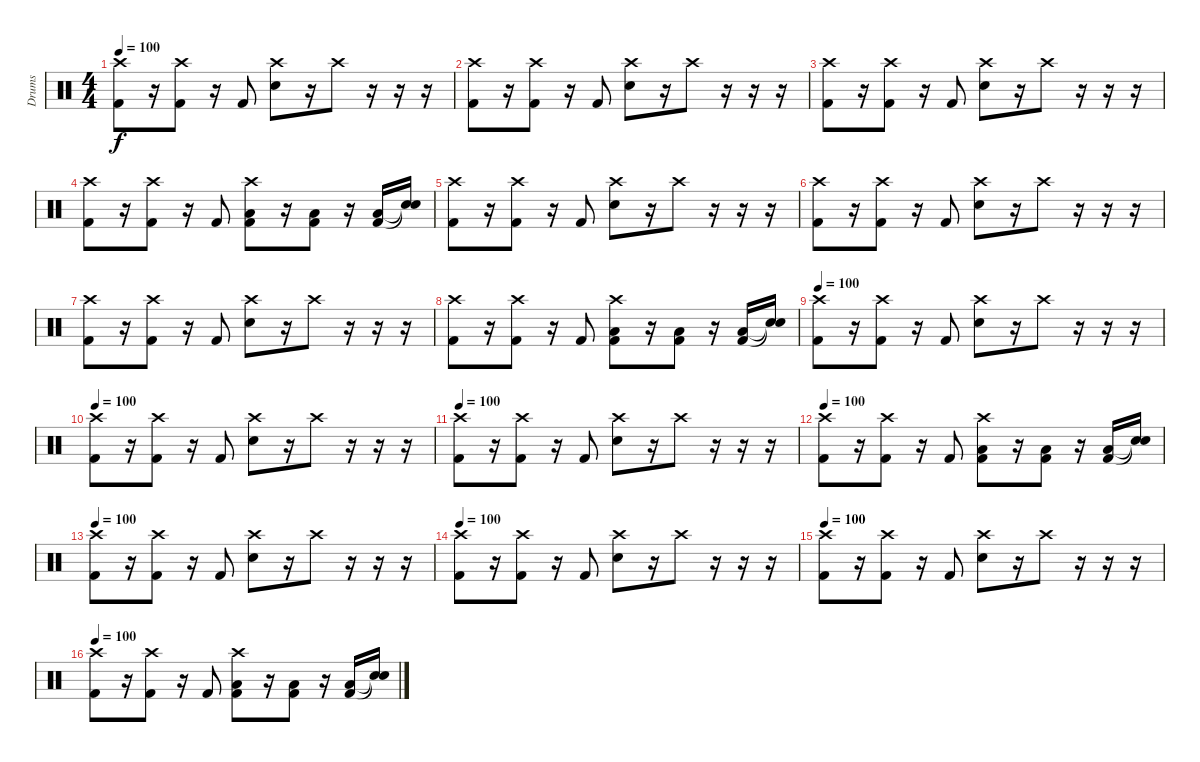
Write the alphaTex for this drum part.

\track ("Drums" "Drums") {instrument percussion}
\staff {score}
\articulation defaults
\ts (4 4)
\tempo 100
\clef neutral
\ks c
("Crash high (hit)" "Kick (hit) 2").8{dy f} r.16 ("Crash high (hit)" "Kick (hit) 2").8 r.16 "Kick (hit) 2".8 ("Crash high (hit)" "Electric Snare (hit)").8 r.16 "Crash high (hit)".8 r.16 r.16 r.16 |
("Crash high (hit)" "Kick (hit) 2").8 r.16 ("Crash high (hit)" "Kick (hit) 2").8 r.16 "Kick (hit) 2".8 ("Crash high (hit)" "Electric Snare (hit)").8 r.16 "Crash high (hit)".8 r.16 r.16 r.16 |
("Crash high (hit)" "Kick (hit) 2").8 r.16 ("Crash high (hit)" "Kick (hit) 2").8 r.16 "Kick (hit) 2".8 ("Crash high (hit)" "Electric Snare (hit)").8 r.16 "Crash high (hit)".8 r.16 r.16 r.16 |
("Crash high (hit)" "Kick (hit) 2").8 r.16 ("Crash high (hit)" "Kick (hit) 2").8 r.16 "Kick (hit) 2".8 ("Kick (hit) 2" "Crash high (hit)" "Low Floor Tom (hit)").8 r.16 ("Low Floor Tom (hit)" "Kick (hit) 2").8 r.16 ("Low Floor Tom (hit)" "Kick (hit) 2").16 ("Snare (hit)"{t} "Snare (hit)"{t}).16 |
("Crash high (hit)" "Kick (hit) 2").8 r.16 ("Crash high (hit)" "Kick (hit) 2").8 r.16 "Kick (hit) 2".8 ("Crash high (hit)" "Electric Snare (hit)").8 r.16 "Crash high (hit)".8 r.16 r.16 r.16 |
("Crash high (hit)" "Kick (hit) 2").8 r.16 ("Crash high (hit)" "Kick (hit) 2").8 r.16 "Kick (hit) 2".8 ("Crash high (hit)" "Electric Snare (hit)").8 r.16 "Crash high (hit)".8 r.16 r.16 r.16 |
("Crash high (hit)" "Kick (hit) 2").8 r.16 ("Crash high (hit)" "Kick (hit) 2").8 r.16 "Kick (hit) 2".8 ("Crash high (hit)" "Electric Snare (hit)").8 r.16 "Crash high (hit)".8 r.16 r.16 r.16 |
("Crash high (hit)" "Kick (hit) 2").8 r.16 ("Crash high (hit)" "Kick (hit) 2").8 r.16 "Kick (hit) 2".8 ("Kick (hit) 2" "Crash high (hit)" "Low Floor Tom (hit)").8 r.16 ("Low Floor Tom (hit)" "Kick (hit) 2").8 r.16 ("Low Floor Tom (hit)" "Kick (hit) 2").16 ("Snare (hit)"{t} "Snare (hit)"{t}).16 |
\tempo 100
("Crash high (hit)" "Kick (hit) 2").8 r.16 ("Crash high (hit)" "Kick (hit) 2").8 r.16 "Kick (hit) 2".8 ("Crash high (hit)" "Electric Snare (hit)").8 r.16 "Crash high (hit)".8 r.16 r.16 r.16 |
\tempo 100
("Crash high (hit)" "Kick (hit) 2").8 r.16 ("Crash high (hit)" "Kick (hit) 2").8 r.16 "Kick (hit) 2".8 ("Crash high (hit)" "Electric Snare (hit)").8 r.16 "Crash high (hit)".8 r.16 r.16 r.16 |
\tempo 100
("Crash high (hit)" "Kick (hit) 2").8 r.16 ("Crash high (hit)" "Kick (hit) 2").8 r.16 "Kick (hit) 2".8 ("Crash high (hit)" "Electric Snare (hit)").8 r.16 "Crash high (hit)".8 r.16 r.16 r.16 |
\tempo 100
("Crash high (hit)" "Kick (hit) 2").8 r.16 ("Crash high (hit)" "Kick (hit) 2").8 r.16 "Kick (hit) 2".8 ("Kick (hit) 2" "Crash high (hit)" "Low Floor Tom (hit)").8 r.16 ("Low Floor Tom (hit)" "Kick (hit) 2").8 r.16 ("Low Floor Tom (hit)" "Kick (hit) 2").16 ("Snare (hit)"{t} "Snare (hit)"{t}).16 |
\tempo 100
("Crash high (hit)" "Kick (hit) 2").8 r.16 ("Crash high (hit)" "Kick (hit) 2").8 r.16 "Kick (hit) 2".8 ("Crash high (hit)" "Electric Snare (hit)").8 r.16 "Crash high (hit)".8 r.16 r.16 r.16 |
\tempo 100
("Crash high (hit)" "Kick (hit) 2").8 r.16 ("Crash high (hit)" "Kick (hit) 2").8 r.16 "Kick (hit) 2".8 ("Crash high (hit)" "Electric Snare (hit)").8 r.16 "Crash high (hit)".8 r.16 r.16 r.16 |
\tempo 100
("Crash high (hit)" "Kick (hit) 2").8 r.16 ("Crash high (hit)" "Kick (hit) 2").8 r.16 "Kick (hit) 2".8 ("Crash high (hit)" "Electric Snare (hit)").8 r.16 "Crash high (hit)".8 r.16 r.16 r.16 |
\tempo 100
("Crash high (hit)" "Kick (hit) 2").8 r.16 ("Crash high (hit)" "Kick (hit) 2").8 r.16 "Kick (hit) 2".8 ("Kick (hit) 2" "Crash high (hit)" "Low Floor Tom (hit)").8 r.16 ("Low Floor Tom (hit)" "Kick (hit) 2").8 r.16 ("Low Floor Tom (hit)" "Kick (hit) 2").16 ("Snare (hit)"{t} "Snare (hit)"{t}).16
